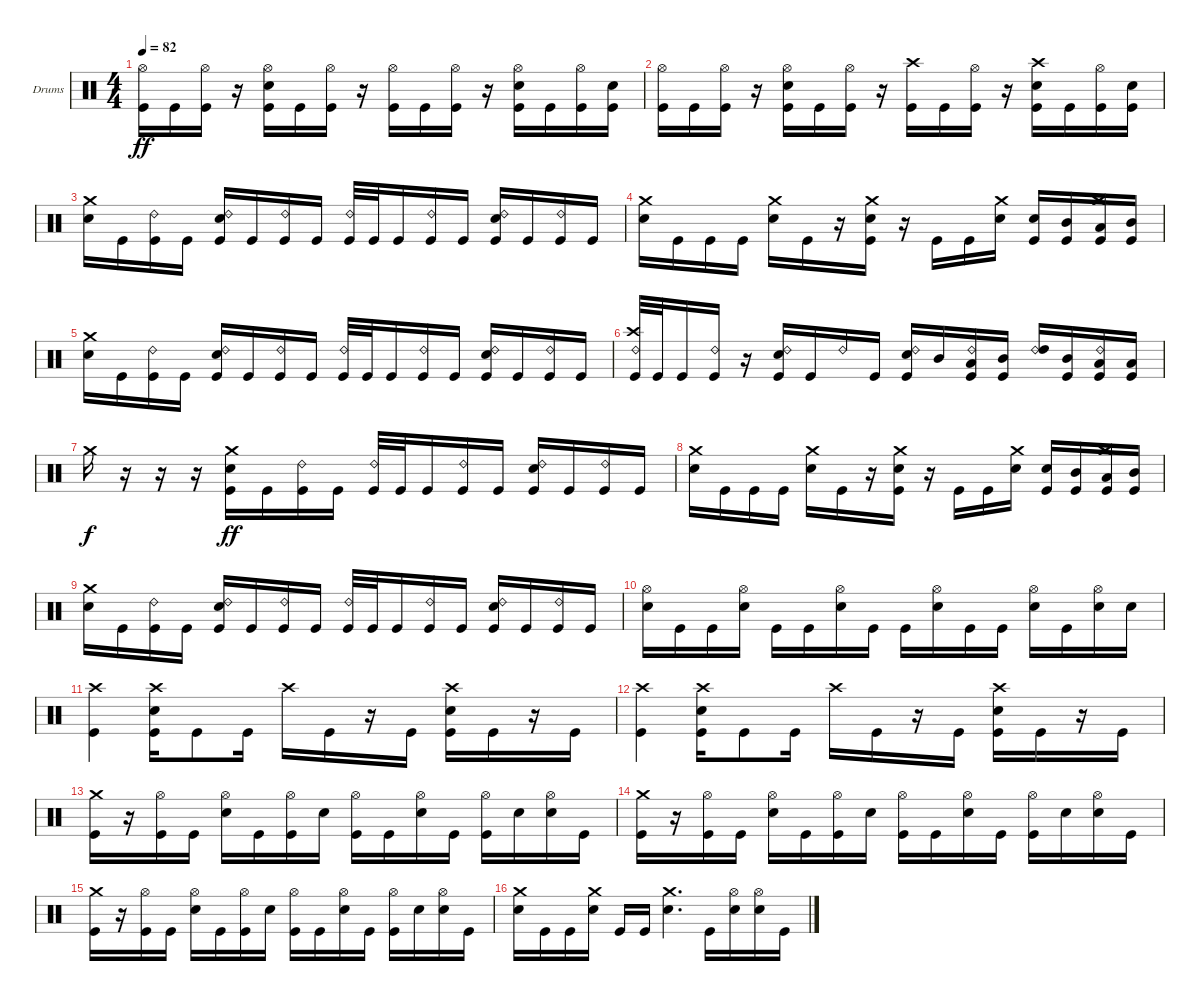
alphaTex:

\bracketExtendMode groupsimilarinstruments
\firstSystemTrackNameOrientation horizontal
\otherSystemsTrackNameOrientation horizontal
\track ("Drumkit" "Drums") {instrument percussion}
\staff {score}
\articulation defaults
\ts (4 4)
\tempo 82
\clef neutral
\ks c
("Kick (hit)" "Hi-Hat (open)").16{dy ff} "Kick (hit)".16 ("Kick (hit)" "Hi-Hat (open)").16 r.16 ("Kick (hit)" "Snare (hit) 2" "Hi-Hat (open)").16 "Kick (hit)".16 ("Kick (hit)" "Hi-Hat (open)").16 r.16 ("Kick (hit)" "Hi-Hat (open)").16 "Kick (hit)".16 ("Kick (hit)" "Hi-Hat (open)").16 r.16 ("Kick (hit)" "Snare (hit) 2" "Hi-Hat (open)").16 "Kick (hit)".16 ("Kick (hit)" "Hi-Hat (open)").16 ("Kick (hit)" "Snare (hit) 2").16 |
("Kick (hit)" "Hi-Hat (open)").16 "Kick (hit)".16 ("Kick (hit)" "Hi-Hat (open)").16 r.16 ("Kick (hit)" "Snare (hit) 2" "Hi-Hat (open)").16 "Kick (hit)".16 ("Kick (hit)" "Hi-Hat (open)").16 r.16 ("Kick (hit)" "Crash high (hit)").16 "Kick (hit)".16 ("Kick (hit)" "Hi-Hat (open)").16 r.16 ("Kick (hit)" "Snare (hit) 2" "Crash high (hit)").16 "Kick (hit)".16 ("Kick (hit)" "Hi-Hat (open)").16 ("Kick (hit)" "Snare (hit) 2").16 |
("Snare (hit) 2" "Crash medium (hit)").16 "Kick (hit)".16 ("Kick (hit)" "Ride (bell) 2").16 "Kick (hit)".16 ("Kick (hit)" "Snare (hit) 2" "Ride (bell) 2").16 "Kick (hit)".16 ("Kick (hit)" "Ride (bell) 2").16 "Kick (hit)".16 ("Kick (hit)" "Ride (bell) 2").32 "Kick (hit)".32 "Kick (hit)".16 ("Kick (hit)" "Ride (bell) 2").16 "Kick (hit)".16 ("Kick (hit)" "Snare (hit) 2" "Ride (bell) 2").16 "Kick (hit)".16 ("Kick (hit)" "Ride (bell) 2").16 "Kick (hit)".16 |
("Snare (hit) 2" "Crash medium (hit)").16 "Kick (hit)".16 "Kick (hit)".16 "Kick (hit)".16 ("Crash medium (hit)" "Snare (hit) 2").16 "Kick (hit)".16 r.16 ("Kick (hit)" "Snare (hit) 2" "Crash medium (hit)").16 r.16 "Kick (hit)".16 "Kick (hit)".16 ("Snare (hit) 2" "Crash medium (hit)").16 ("Kick (hit)" "Snare (hit) 2").16 ("Kick (hit)" "Mid Tom (hit)").16 ("Crash medium (hit)" "Kick (hit)" "Low Tom (hit)").16 ("Kick (hit)" "Mid Tom (hit)").16 |
("Snare (hit) 2" "Crash medium (hit)").16 "Kick (hit)".16 ("Kick (hit)" "Ride (bell) 2").16 "Kick (hit)".16 ("Kick (hit)" "Snare (hit) 2" "Ride (bell) 2").16 "Kick (hit)".16 ("Kick (hit)" "Ride (bell) 2").16 "Kick (hit)".16 ("Kick (hit)" "Ride (bell) 2").32 "Kick (hit)".32 "Kick (hit)".16 ("Kick (hit)" "Ride (bell) 2").16 "Kick (hit)".16 ("Kick (hit)" "Snare (hit) 2" "Ride (bell) 2").16 "Kick (hit)".16 ("Kick (hit)" "Ride (bell) 2").16 "Kick (hit)".16 |
("Kick (hit)" "Ride (bell) 2" "Crash high (hit)").32 "Kick (hit)".32 "Kick (hit)".16 ("Kick (hit)" "Ride (bell) 2").16 r.16 ("Kick (hit)" "Ride (bell) 2" "Snare (hit) 2").16 "Kick (hit)".16 "Ride (bell) 2".16 "Kick (hit)".16 ("Kick (hit)" "Ride (bell) 2" "Snare (hit) 2").16 "Mid Tom (hit)".16 ("Kick (hit)" "Ride (bell) 2" "Low Tom (hit)").16 ("Kick (hit)" "Mid Tom (hit)").16 ("Ride (bell) 2" "High Tom (hit)").16 ("Kick (hit)" "Mid Tom (hit)").16 ("Kick (hit)" "Ride (bell) 2" "Low Tom (hit)").16 ("Kick (hit)" "Low Tom (hit)").16 |
"Crash medium (hit)".16{dy f} r.16 r.16 r.16 ("Kick (hit)" "Snare (hit) 2" "Crash medium (hit)").16{dy ff} "Kick (hit)".16 ("Kick (hit)" "Ride (bell) 2").16 "Kick (hit)".16 ("Kick (hit)" "Ride (bell) 2").32 "Kick (hit)".32 "Kick (hit)".16 ("Kick (hit)" "Ride (bell) 2").16 "Kick (hit)".16 ("Kick (hit)" "Snare (hit) 2" "Ride (bell) 2").16 "Kick (hit)".16 ("Kick (hit)" "Ride (bell) 2").16 "Kick (hit)".16 |
("Snare (hit) 2" "Crash medium (hit)").16 "Kick (hit)".16 "Kick (hit)".16 "Kick (hit)".16 ("Crash medium (hit)" "Snare (hit) 2").16 "Kick (hit)".16 r.16 ("Kick (hit)" "Snare (hit) 2" "Crash medium (hit)").16 r.16 "Kick (hit)".16 "Kick (hit)".16 ("Snare (hit) 2" "Crash medium (hit)").16 ("Kick (hit)" "Snare (hit) 2").16 ("Kick (hit)" "Mid Tom (hit)").16 ("Crash medium (hit)" "Kick (hit)" "Low Tom (hit)").16 ("Kick (hit)" "Mid Tom (hit)").16 |
("Snare (hit) 2" "Crash medium (hit)").16 "Kick (hit)".16 ("Kick (hit)" "Ride (bell) 2").16 "Kick (hit)".16 ("Kick (hit)" "Snare (hit) 2" "Ride (bell) 2").16 "Kick (hit)".16 ("Kick (hit)" "Ride (bell) 2").16 "Kick (hit)".16 ("Kick (hit)" "Ride (bell) 2").32 "Kick (hit)".32 "Kick (hit)".16 ("Kick (hit)" "Ride (bell) 2").16 "Kick (hit)".16 ("Kick (hit)" "Snare (hit) 2" "Ride (bell) 2").16 "Kick (hit)".16 ("Kick (hit)" "Ride (bell) 2").16 "Kick (hit)".16 |
("Snare (hit) 2" "Hi-Hat (open)").16 "Kick (hit)".16 "Kick (hit)".16 ("Snare (hit) 2" "Hi-Hat (open)").16 "Kick (hit)".16 "Kick (hit)".16 ("Snare (hit) 2" "Hi-Hat (open)").16 "Kick (hit)".16 "Kick (hit)".16 ("Snare (hit) 2" "Hi-Hat (open)").16 "Kick (hit)".16 "Kick (hit)".16 ("Snare (hit) 2" "Hi-Hat (open)").16 "Kick (hit)".16 ("Snare (hit) 2" "Hi-Hat (open)").16 "Snare (hit) 2".16 |
("Crash high (hit)" "Kick (hit)").4 ("Kick (hit)" "Snare (hit) 2" "Crash high (hit)").16 "Kick (hit)".8 "Kick (hit)".16 "Crash high (hit)".16 "Kick (hit)".16 r.16 "Kick (hit)".16 ("Kick (hit)" "Snare (hit) 2" "Crash high (hit)").16 "Kick (hit)".16 r.16 "Kick (hit)".16 |
("Crash high (hit)" "Kick (hit)").4 ("Kick (hit)" "Snare (hit) 2" "Crash high (hit)").16 "Kick (hit)".8 "Kick (hit)".16 "Crash high (hit)".16 "Kick (hit)".16 r.16 "Kick (hit)".16 ("Kick (hit)" "Snare (hit) 2" "Crash high (hit)").16 "Kick (hit)".16 r.16 "Kick (hit)".16 |
("Crash medium (hit)" "Kick (hit)").16 r.16 ("Kick (hit)" "Hi-Hat (open)").16 "Kick (hit)".16 ("Snare (hit) 2" "Hi-Hat (open)").16 "Kick (hit)".16 ("Kick (hit)" "Hi-Hat (open)").16 "Snare (hit) 2".16 ("Kick (hit)" "Hi-Hat (open)").16 "Kick (hit)".16 ("Snare (hit) 2" "Hi-Hat (open)").16 "Kick (hit)".16 ("Kick (hit)" "Hi-Hat (open)").16 "Snare (hit) 2".16 ("Snare (hit) 2" "Hi-Hat (open)").16 "Kick (hit)".16 |
("Crash medium (hit)" "Kick (hit)").16 r.16 ("Kick (hit)" "Hi-Hat (open)").16 "Kick (hit)".16 ("Snare (hit) 2" "Hi-Hat (open)").16 "Kick (hit)".16 ("Kick (hit)" "Hi-Hat (open)").16 "Snare (hit) 2".16 ("Kick (hit)" "Hi-Hat (open)").16 "Kick (hit)".16 ("Snare (hit) 2" "Hi-Hat (open)").16 "Kick (hit)".16 ("Kick (hit)" "Hi-Hat (open)").16 "Snare (hit) 2".16 ("Snare (hit) 2" "Hi-Hat (open)").16 "Kick (hit)".16 |
("Crash medium (hit)" "Kick (hit)").16 r.16 ("Kick (hit)" "Hi-Hat (open)").16 "Kick (hit)".16 ("Snare (hit) 2" "Hi-Hat (open)").16 "Kick (hit)".16 ("Kick (hit)" "Hi-Hat (open)").16 "Snare (hit) 2".16 ("Kick (hit)" "Hi-Hat (open)").16 "Kick (hit)".16 ("Snare (hit) 2" "Hi-Hat (open)").16 "Kick (hit)".16 ("Kick (hit)" "Hi-Hat (open)").16 "Snare (hit) 2".16 ("Snare (hit) 2" "Hi-Hat (open)").16 "Kick (hit)".16 |
("Crash medium (hit)" "Snare (hit) 2").16 "Kick (hit)".16 "Kick (hit)".16 ("Crash medium (hit)" "Snare (hit) 2").16 "Kick (hit)".16 "Kick (hit)".16 ("Crash medium (hit)" "Snare (hit) 2").4{d} "Kick (hit)".16 ("Snare (hit) 2" "Hi-Hat (open)").16 ("Snare (hit) 2" "Hi-Hat (open)").16 "Kick (hit)".16
